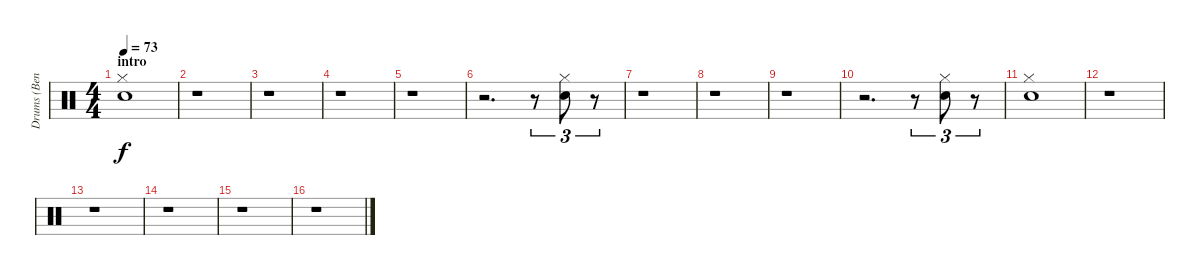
\track ("Drums (Bengerg)" "Drums (Ben") {instrument percussion}
\staff {score}
\articulation defaults
\ts (4 4)
\section ("" "intro")
\tempo 73
\clef neutral
\ks c
("Hi-Hat (closed)" "Electric Snare (hit)").1{dy f} |
r.1 |
r.1 |
r.1 |
r.1 |
r.2{d} r.8{tu (3 2)} ("Hi-Hat (closed)" "Electric Snare (hit)").8{tu (3 2)} r.8{tu (3 2)} |
r.1 |
r.1 |
r.1 |
r.2{d} r.8{tu (3 2)} ("Hi-Hat (closed)" "Electric Snare (hit)").8{tu (3 2)} r.8{tu (3 2)} |
("Hi-Hat (closed)" "Electric Snare (hit)").1 |
r.1 |
r.1 |
r.1 |
r.1 |
r.1
